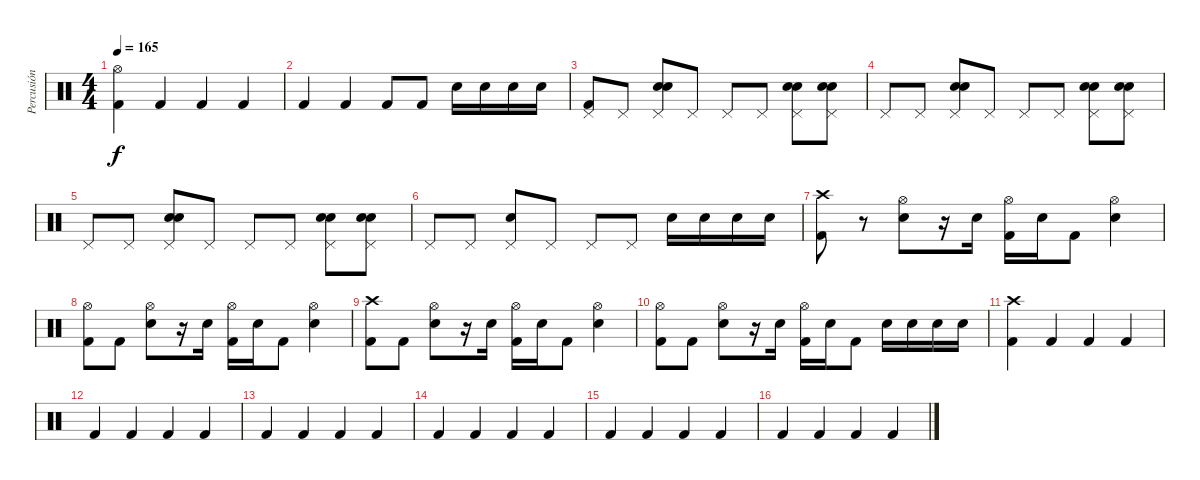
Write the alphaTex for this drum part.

\track ("Percusión" "Percusión") {instrument percussion}
\staff {score}
\articulation defaults
\ts (4 4)
\tempo 165
\clef neutral
\ks c
("Hi-Hat (open)" "Kick (hit) 2").4{dy f} "Kick (hit) 2".4 "Kick (hit) 2".4 "Kick (hit) 2".4 |
"Kick (hit) 2".4 "Kick (hit) 2".4 "Kick (hit) 2".8 "Kick (hit) 2".8 "Electric Snare (hit)".16 "Electric Snare (hit)".16 "Electric Snare (hit)".16 "Electric Snare (hit)".16 |
("Pedal Hi-Hat (hit)" "Kick (hit) 2").8 "Pedal Hi-Hat (hit)".8 ("Hand Clap (hit)" "Pedal Hi-Hat (hit)" "Electric Snare (hit)").8 "Pedal Hi-Hat (hit)".8 "Pedal Hi-Hat (hit)".8 "Pedal Hi-Hat (hit)".8 ("Hand Clap (hit)" "Pedal Hi-Hat (hit)" "Electric Snare (hit)").8 ("Hand Clap (hit)" "Pedal Hi-Hat (hit)" "Electric Snare (hit)").8 |
"Pedal Hi-Hat (hit)".8 "Pedal Hi-Hat (hit)".8 ("Hand Clap (hit)" "Pedal Hi-Hat (hit)" "Electric Snare (hit)").8 "Pedal Hi-Hat (hit)".8 "Pedal Hi-Hat (hit)".8 "Pedal Hi-Hat (hit)".8 ("Hand Clap (hit)" "Pedal Hi-Hat (hit)" "Electric Snare (hit)").8 ("Hand Clap (hit)" "Pedal Hi-Hat (hit)" "Electric Snare (hit)").8 |
"Pedal Hi-Hat (hit)".8 "Pedal Hi-Hat (hit)".8 ("Hand Clap (hit)" "Pedal Hi-Hat (hit)" "Electric Snare (hit)").8 "Pedal Hi-Hat (hit)".8 "Pedal Hi-Hat (hit)".8 "Pedal Hi-Hat (hit)".8 ("Hand Clap (hit)" "Pedal Hi-Hat (hit)" "Electric Snare (hit)").8 ("Hand Clap (hit)" "Pedal Hi-Hat (hit)" "Electric Snare (hit)").8 |
"Pedal Hi-Hat (hit)".8 "Pedal Hi-Hat (hit)".8 ("Pedal Hi-Hat (hit)" "Electric Snare (hit)").8 "Pedal Hi-Hat (hit)".8 "Pedal Hi-Hat (hit)".8 "Pedal Hi-Hat (hit)".8 "Electric Snare (hit)".16 "Electric Snare (hit)".16 "Electric Snare (hit)".16 "Electric Snare (hit)".16 |
("Crash high (hit)" "Kick (hit) 2").8 r.8 ("Hi-Hat (open)" "Electric Snare (hit)").8 r.16 "Electric Snare (hit)".16 ("Hi-Hat (open)" "Kick (hit) 2").16 "Electric Snare (hit)".16 "Kick (hit) 2".8 ("Hi-Hat (open)" "Electric Snare (hit)").4 |
("Hi-Hat (open)" "Kick (hit) 2").8 "Kick (hit) 2".8 ("Hi-Hat (open)" "Electric Snare (hit)").8 r.16 "Electric Snare (hit)".16 ("Hi-Hat (open)" "Kick (hit) 2").16 "Electric Snare (hit)".16 "Kick (hit) 2".8 ("Hi-Hat (open)" "Electric Snare (hit)").4 |
("Crash high (hit)" "Kick (hit) 2").8 "Kick (hit) 2".8 ("Hi-Hat (open)" "Electric Snare (hit)").8 r.16 "Electric Snare (hit)".16 ("Hi-Hat (open)" "Kick (hit) 2").16 "Electric Snare (hit)".16 "Kick (hit) 2".8 ("Hi-Hat (open)" "Electric Snare (hit)").4 |
("Hi-Hat (open)" "Kick (hit) 2").8 "Kick (hit) 2".8 ("Hi-Hat (open)" "Electric Snare (hit)").8 r.16 "Electric Snare (hit)".16 ("Hi-Hat (open)" "Kick (hit) 2").16 "Electric Snare (hit)".16 "Kick (hit) 2".8 "Electric Snare (hit)".16 "Electric Snare (hit)".16 "Electric Snare (hit)".16 "Electric Snare (hit)".16 |
("Crash high (hit)" "Kick (hit) 2").4 "Kick (hit) 2".4 "Kick (hit) 2".4 "Kick (hit) 2".4 |
"Kick (hit) 2".4 "Kick (hit) 2".4 "Kick (hit) 2".4 "Kick (hit) 2".4 |
"Kick (hit) 2".4 "Kick (hit) 2".4 "Kick (hit) 2".4 "Kick (hit) 2".4 |
"Kick (hit) 2".4 "Kick (hit) 2".4 "Kick (hit) 2".4 "Kick (hit) 2".4 |
"Kick (hit) 2".4 "Kick (hit) 2".4 "Kick (hit) 2".4 "Kick (hit) 2".4 |
"Kick (hit) 2".4 "Kick (hit) 2".4 "Kick (hit) 2".4 "Kick (hit) 2".4
